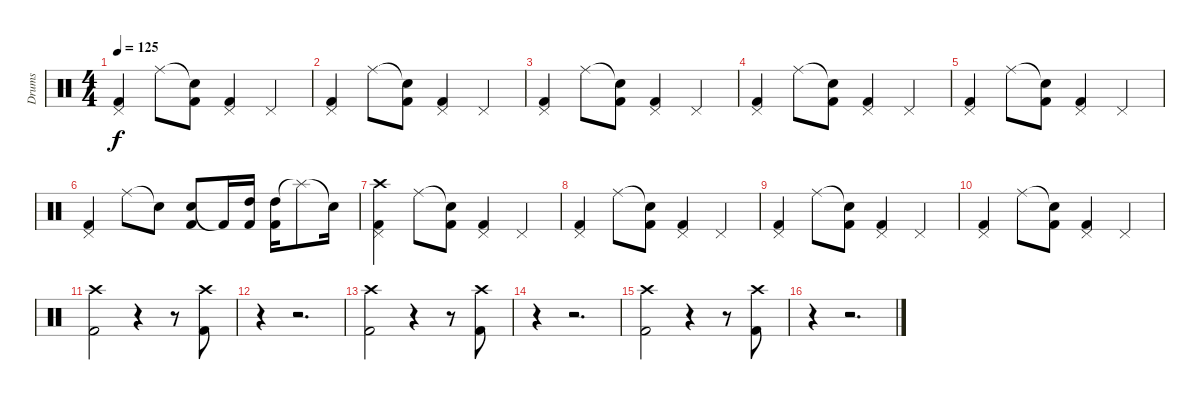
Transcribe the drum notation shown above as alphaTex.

\track ("Drums" "Drums") {instrument percussion}
\staff {score}
\articulation defaults
\ts (4 4)
\tempo 125
\clef neutral
\ks c
("Pedal Hi-Hat (hit)" "Kick (hit) 2").4{dy f} "Ride (middle)".8 ("Snare (hit)"{t} "Kick (hit) 2").8 ("Pedal Hi-Hat (hit)" "Kick (hit) 2").4 "Pedal Hi-Hat (hit)".4 |
("Pedal Hi-Hat (hit)" "Kick (hit) 2").4 "Ride (middle)".8 ("Snare (hit)"{t} "Kick (hit) 2").8 ("Pedal Hi-Hat (hit)" "Kick (hit) 2").4 "Pedal Hi-Hat (hit)".4 |
("Pedal Hi-Hat (hit)" "Kick (hit) 2").4 "Ride (middle)".8 ("Snare (hit)"{t} "Kick (hit) 2").8 ("Pedal Hi-Hat (hit)" "Kick (hit) 2").4 "Pedal Hi-Hat (hit)".4 |
("Pedal Hi-Hat (hit)" "Kick (hit) 2").4 "Ride (middle)".8 ("Snare (hit)"{t} "Kick (hit) 2").8 ("Pedal Hi-Hat (hit)" "Kick (hit) 2").4 "Pedal Hi-Hat (hit)".4 |
("Pedal Hi-Hat (hit)" "Kick (hit) 2").4 "Ride (middle)".8 ("Snare (hit)"{t} "Kick (hit) 2").8 ("Pedal Hi-Hat (hit)" "Kick (hit) 2").4 "Pedal Hi-Hat (hit)".4 |
("Pedal Hi-Hat (hit)" "Kick (hit) 2").4 "Ride (middle)".8 "Snare (hit)"{t}.8 ("Snare (hit) 2" "Kick (hit) 2").8 "Kick (hit) 2"{t}.16 ("High Tom (hit)" "Kick (hit) 2").16 ("High Tom (hit)" "Kick (hit) 2").16 "Splash (hit)"{t}.8 "Snare (hit)"{t}.16 |
("Pedal Hi-Hat (hit)" "Kick (hit) 2" "Crash high (hit)").4 "Ride (middle)".8 ("Snare (hit)"{t} "Kick (hit) 2").8 ("Pedal Hi-Hat (hit)" "Kick (hit) 2").4 "Pedal Hi-Hat (hit)".4 |
("Pedal Hi-Hat (hit)" "Kick (hit) 2").4 "Ride (middle)".8 ("Snare (hit)"{t} "Kick (hit) 2").8 ("Pedal Hi-Hat (hit)" "Kick (hit) 2").4 "Pedal Hi-Hat (hit)".4 |
("Pedal Hi-Hat (hit)" "Kick (hit) 2").4 "Ride (middle)".8 ("Snare (hit)"{t} "Kick (hit) 2").8 ("Pedal Hi-Hat (hit)" "Kick (hit) 2").4 "Pedal Hi-Hat (hit)".4 |
("Pedal Hi-Hat (hit)" "Kick (hit) 2").4 "Ride (middle)".8 ("Snare (hit)"{t} "Kick (hit) 2").8 ("Pedal Hi-Hat (hit)" "Kick (hit) 2").4 "Pedal Hi-Hat (hit)".4 |
("Crash high (hit)" "Kick (hit) 2").2 r.4 r.8 ("Crash high (hit)" "Kick (hit) 2").8 |
r.4 r.2{d} |
("Crash high (hit)" "Kick (hit) 2").2 r.4 r.8 ("Crash high (hit)" "Kick (hit) 2").8 |
r.4 r.2{d} |
("Crash high (hit)" "Kick (hit) 2").2 r.4 r.8 ("Crash high (hit)" "Kick (hit) 2").8 |
r.4 r.2{d}
